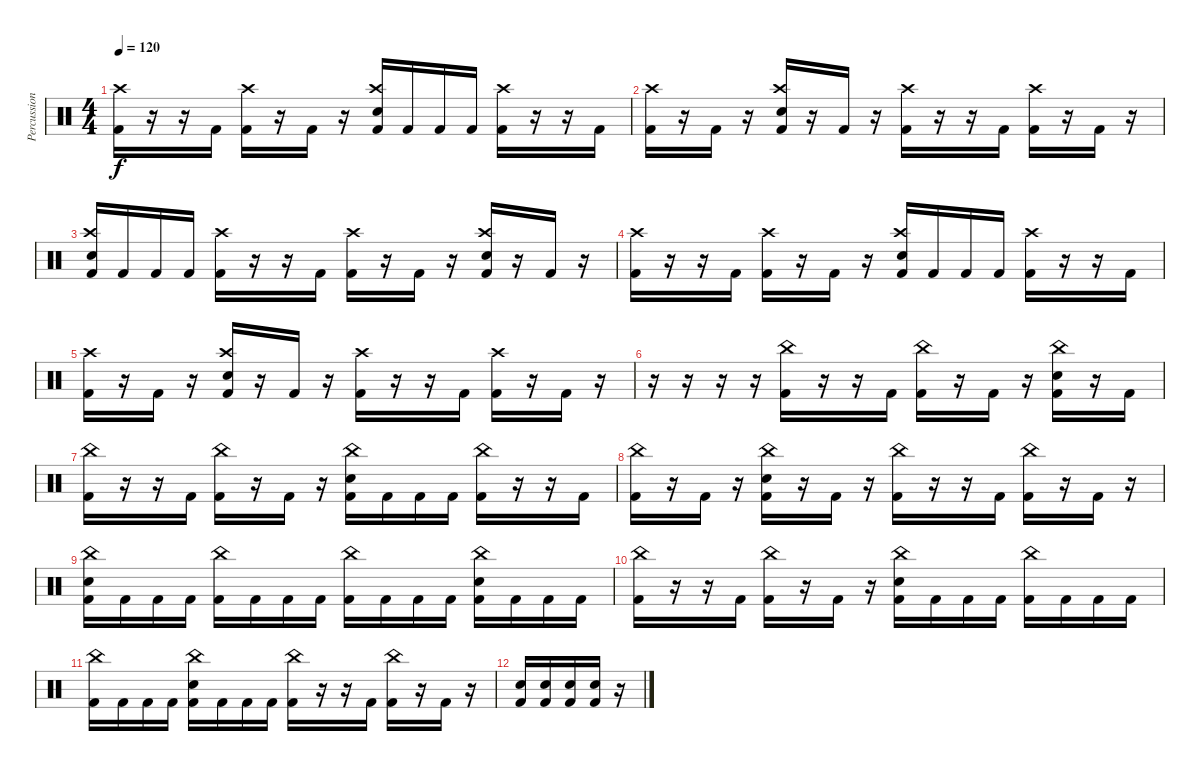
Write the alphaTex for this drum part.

\track ("Percussion" "Percussion") {instrument percussion}
\staff {score}
\articulation defaults
\ts (4 4)
\tempo 120
\clef neutral
\ks c
("Kick (hit) 2" "Crash high (hit)").16{dy f} r.16 r.16 "Kick (hit) 2".16 ("Kick (hit) 2" "Crash high (hit)").16 r.16 "Kick (hit) 2".16 r.16 ("Kick (hit) 2" "Electric Snare (hit)" "Crash high (hit)").16 "Kick (hit) 2".16 "Kick (hit) 2".16 "Kick (hit) 2".16 ("Kick (hit) 2" "Crash high (hit)").16 r.16 r.16 "Kick (hit) 2".16 |
("Kick (hit) 2" "Crash high (hit)").16 r.16 "Kick (hit) 2".16 r.16 ("Kick (hit) 2" "Electric Snare (hit)" "Crash high (hit)").16 r.16 "Kick (hit) 2".16 r.16 ("Kick (hit) 2" "Crash high (hit)").16 r.16 r.16 "Kick (hit) 2".16 ("Kick (hit) 2" "Crash high (hit)").16 r.16 "Kick (hit) 2".16 r.16 |
("Kick (hit) 2" "Electric Snare (hit)" "Crash high (hit)").16 "Kick (hit) 2".16 "Kick (hit) 2".16 "Kick (hit) 2".16 ("Kick (hit) 2" "Crash high (hit)").16 r.16 r.16 "Kick (hit) 2".16 ("Kick (hit) 2" "Crash high (hit)").16 r.16 "Kick (hit) 2".16 r.16 ("Kick (hit) 2" "Electric Snare (hit)" "Crash high (hit)").16 r.16 "Kick (hit) 2".16 r.16 |
("Kick (hit) 2" "Crash high (hit)").16 r.16 r.16 "Kick (hit) 2".16 ("Kick (hit) 2" "Crash high (hit)").16 r.16 "Kick (hit) 2".16 r.16 ("Kick (hit) 2" "Electric Snare (hit)" "Crash high (hit)").16 "Kick (hit) 2".16 "Kick (hit) 2".16 "Kick (hit) 2".16 ("Kick (hit) 2" "Crash high (hit)").16 r.16 r.16 "Kick (hit) 2".16 |
("Kick (hit) 2" "Crash high (hit)").16 r.16 "Kick (hit) 2".16 r.16 ("Kick (hit) 2" "Electric Snare (hit)" "Crash high (hit)").16 r.16 "Kick (hit) 2".16 r.16 ("Kick (hit) 2" "Crash high (hit)").16 r.16 r.16 "Kick (hit) 2".16 ("Kick (hit) 2" "Crash high (hit)").16 r.16 "Kick (hit) 2".16 r.16 |
r.16 r.16 r.16 r.16 ("Kick (hit) 2" "China (hit)").16 r.16 r.16 "Kick (hit) 2".16 ("Kick (hit) 2" "China (hit)").16 r.16 "Kick (hit) 2".16 r.16 ("Kick (hit) 2" "Electric Snare (hit)" "China (hit)").16 r.16 "Kick (hit) 2".16 |
("Kick (hit) 2" "China (hit)").16 r.16 r.16 "Kick (hit) 2".16 ("Kick (hit) 2" "China (hit)").16 r.16 "Kick (hit) 2".16 r.16 ("Kick (hit) 2" "Electric Snare (hit)" "China (hit)").16 "Kick (hit) 2".16 "Kick (hit) 2".16 "Kick (hit) 2".16 ("Kick (hit) 2" "China (hit)").16 r.16 r.16 "Kick (hit) 2".16 |
("Kick (hit) 2" "China (hit)").16 r.16 "Kick (hit) 2".16 r.16 ("Kick (hit) 2" "Electric Snare (hit)" "China (hit)").16 r.16 "Kick (hit) 2".16 r.16 ("Kick (hit) 2" "China (hit)").16 r.16 r.16 "Kick (hit) 2".16 ("Kick (hit) 2" "China (hit)").16 r.16 "Kick (hit) 2".16 r.16 |
("Kick (hit) 2" "Electric Snare (hit)" "China (hit)").16 "Kick (hit) 2".16 "Kick (hit) 2".16 "Kick (hit) 2".16 ("Kick (hit) 2" "China (hit)").16 "Kick (hit) 2".16 "Kick (hit) 2".16 "Kick (hit) 2".16 ("Kick (hit) 2" "China (hit)").16 "Kick (hit) 2".16 "Kick (hit) 2".16 "Kick (hit) 2".16 ("Kick (hit) 2" "Electric Snare (hit)" "China (hit)").16 "Kick (hit) 2".16 "Kick (hit) 2".16 "Kick (hit) 2".16 |
("Kick (hit) 2" "China (hit)").16 r.16 r.16 "Kick (hit) 2".16 ("Kick (hit) 2" "China (hit)").16 r.16 "Kick (hit) 2".16 r.16 ("Kick (hit) 2" "Electric Snare (hit)" "China (hit)").16 "Kick (hit) 2".16 "Kick (hit) 2".16 "Kick (hit) 2".16 ("Kick (hit) 2" "China (hit)").16 "Kick (hit) 2".16 "Kick (hit) 2".16 "Kick (hit) 2".16 |
("Kick (hit) 2" "China (hit)").16 "Kick (hit) 2".16 "Kick (hit) 2".16 "Kick (hit) 2".16 ("Kick (hit) 2" "Electric Snare (hit)" "China (hit)").16 "Kick (hit) 2".16 "Kick (hit) 2".16 "Kick (hit) 2".16 ("Kick (hit) 2" "China (hit)").16 r.16 r.16 "Kick (hit) 2".16 ("Kick (hit) 2" "China (hit)").16 r.16 "Kick (hit) 2".16 r.16 |
("Kick (hit) 2" "Electric Snare (hit)").16 ("Kick (hit) 2" "Electric Snare (hit)").16 ("Kick (hit) 2" "Electric Snare (hit)").16 ("Kick (hit) 2" "Electric Snare (hit)").16 r.16
